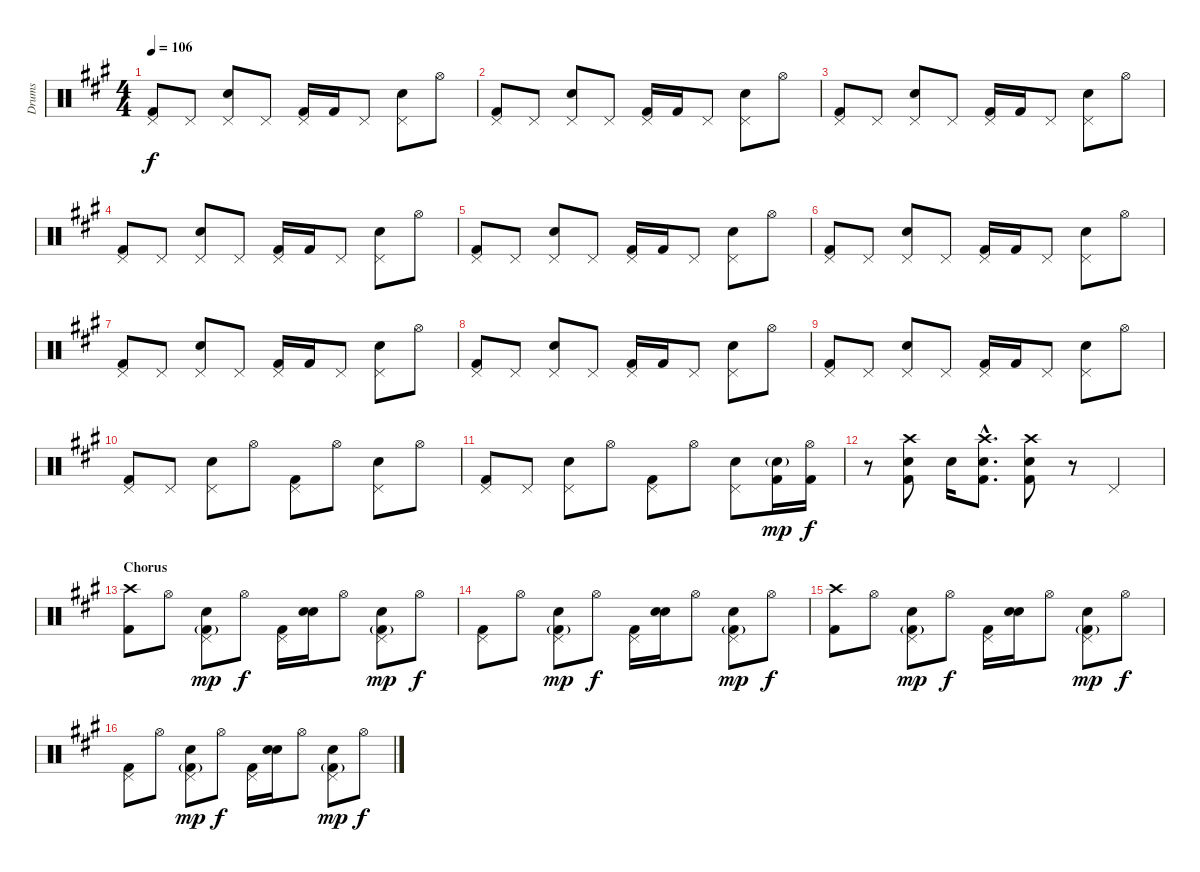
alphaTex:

\track ("Drums" "Drums") {instrument percussion}
\staff {score}
\articulation defaults
\ts (4 4)
\tempo 106
\clef neutral
\ks a
("Pedal Hi-Hat (hit)" "Kick (hit) 2").8{dy f} "Pedal Hi-Hat (hit)".8 ("Pedal Hi-Hat (hit)" "Electric Snare (hit)").8 "Pedal Hi-Hat (hit)".8 ("Pedal Hi-Hat (hit)" "Kick (hit) 2").16 "Kick (hit) 2".16 "Pedal Hi-Hat (hit)".8 ("Pedal Hi-Hat (hit)" "Electric Snare (hit)").8 "Hi-Hat (open)".8 |
("Pedal Hi-Hat (hit)" "Kick (hit) 2").8 "Pedal Hi-Hat (hit)".8 ("Pedal Hi-Hat (hit)" "Electric Snare (hit)").8 "Pedal Hi-Hat (hit)".8 ("Pedal Hi-Hat (hit)" "Kick (hit) 2").16 "Kick (hit) 2".16 "Pedal Hi-Hat (hit)".8 ("Pedal Hi-Hat (hit)" "Electric Snare (hit)").8 "Hi-Hat (open)".8 |
("Pedal Hi-Hat (hit)" "Kick (hit) 2").8 "Pedal Hi-Hat (hit)".8 ("Pedal Hi-Hat (hit)" "Electric Snare (hit)").8 "Pedal Hi-Hat (hit)".8 ("Pedal Hi-Hat (hit)" "Kick (hit) 2").16 "Kick (hit) 2".16 "Pedal Hi-Hat (hit)".8 ("Pedal Hi-Hat (hit)" "Electric Snare (hit)").8 "Hi-Hat (open)".8 |
("Pedal Hi-Hat (hit)" "Kick (hit) 2").8 "Pedal Hi-Hat (hit)".8 ("Pedal Hi-Hat (hit)" "Electric Snare (hit)").8 "Pedal Hi-Hat (hit)".8 ("Pedal Hi-Hat (hit)" "Kick (hit) 2").16 "Kick (hit) 2".16 "Pedal Hi-Hat (hit)".8 ("Pedal Hi-Hat (hit)" "Electric Snare (hit)").8 "Hi-Hat (open)".8 |
("Pedal Hi-Hat (hit)" "Kick (hit) 2").8 "Pedal Hi-Hat (hit)".8 ("Pedal Hi-Hat (hit)" "Electric Snare (hit)").8 "Pedal Hi-Hat (hit)".8 ("Pedal Hi-Hat (hit)" "Kick (hit) 2").16 "Kick (hit) 2".16 "Pedal Hi-Hat (hit)".8 ("Pedal Hi-Hat (hit)" "Electric Snare (hit)").8 "Hi-Hat (open)".8 |
("Pedal Hi-Hat (hit)" "Kick (hit) 2").8 "Pedal Hi-Hat (hit)".8 ("Pedal Hi-Hat (hit)" "Electric Snare (hit)").8 "Pedal Hi-Hat (hit)".8 ("Pedal Hi-Hat (hit)" "Kick (hit) 2").16 "Kick (hit) 2".16 "Pedal Hi-Hat (hit)".8 ("Pedal Hi-Hat (hit)" "Electric Snare (hit)").8 "Hi-Hat (open)".8 |
("Pedal Hi-Hat (hit)" "Kick (hit) 2").8 "Pedal Hi-Hat (hit)".8 ("Pedal Hi-Hat (hit)" "Electric Snare (hit)").8 "Pedal Hi-Hat (hit)".8 ("Pedal Hi-Hat (hit)" "Kick (hit) 2").16 "Kick (hit) 2".16 "Pedal Hi-Hat (hit)".8 ("Pedal Hi-Hat (hit)" "Electric Snare (hit)").8 "Hi-Hat (open)".8 |
("Pedal Hi-Hat (hit)" "Kick (hit) 2").8 "Pedal Hi-Hat (hit)".8 ("Pedal Hi-Hat (hit)" "Electric Snare (hit)").8 "Pedal Hi-Hat (hit)".8 ("Pedal Hi-Hat (hit)" "Kick (hit) 2").16 "Kick (hit) 2".16 "Pedal Hi-Hat (hit)".8 ("Pedal Hi-Hat (hit)" "Electric Snare (hit)").8 "Hi-Hat (open)".8 |
("Pedal Hi-Hat (hit)" "Kick (hit) 2").8 "Pedal Hi-Hat (hit)".8 ("Pedal Hi-Hat (hit)" "Electric Snare (hit)").8 "Pedal Hi-Hat (hit)".8 ("Pedal Hi-Hat (hit)" "Kick (hit) 2").16 "Kick (hit) 2".16 "Pedal Hi-Hat (hit)".8 ("Pedal Hi-Hat (hit)" "Electric Snare (hit)").8 "Hi-Hat (open)".8 |
("Pedal Hi-Hat (hit)" "Kick (hit) 2").8 "Pedal Hi-Hat (hit)".8 ("Pedal Hi-Hat (hit)" "Electric Snare (hit)").8 "Hi-Hat (open)".8 ("Pedal Hi-Hat (hit)" "Kick (hit) 2").8 "Hi-Hat (open)".8 ("Pedal Hi-Hat (hit)" "Electric Snare (hit)").8 "Hi-Hat (open)".8 |
("Pedal Hi-Hat (hit)" "Kick (hit) 2").8 "Pedal Hi-Hat (hit)".8 ("Pedal Hi-Hat (hit)" "Electric Snare (hit)").8 "Hi-Hat (open)".8 ("Pedal Hi-Hat (hit)" "Kick (hit) 2").8 "Hi-Hat (open)".8 ("Pedal Hi-Hat (hit)" "Electric Snare (hit)").8 ("Electric Snare (hit)"{g} "Kick (hit) 2").16{dy mp} ("Hi-Hat (open)" "Kick (hit) 2").16{dy f} |
r.8 ("Crash high (hit)" "Electric Snare (hit)" "Kick (hit) 2").8 "Snare (hit)"{x}.16 ("Crash high (hit)"{hac} "Electric Snare (hit)"{hac} "Kick (hit) 2"{hac}).8{d} ("Crash high (hit)" "Electric Snare (hit)" "Kick (hit) 2").8 r.8 "Pedal Hi-Hat (hit)".4 |
\section ("" "Chorus")
("Crash high (hit)" "Kick (hit) 2").8 "Hi-Hat (open)".8 ("Pedal Hi-Hat (hit)" "Electric Snare (hit)" "Kick (hit) 2"{g}).8{dy mp} "Hi-Hat (open)".8{dy f} ("Pedal Hi-Hat (hit)" "Kick (hit) 2").16 ("Snare (hit)"{x} "Electric Snare (hit)").16 "Hi-Hat (open)".8 ("Pedal Hi-Hat (hit)" "Electric Snare (hit)" "Kick (hit) 2"{g}).8{dy mp} "Hi-Hat (open)".8{dy f} |
("Pedal Hi-Hat (hit)" "Kick (hit) 2").8 "Hi-Hat (open)".8 ("Pedal Hi-Hat (hit)" "Electric Snare (hit)" "Kick (hit) 2"{g}).8{dy mp} "Hi-Hat (open)".8{dy f} ("Pedal Hi-Hat (hit)" "Kick (hit) 2").16 ("Snare (hit)"{x} "Electric Snare (hit)").16 "Hi-Hat (open)".8 ("Pedal Hi-Hat (hit)" "Electric Snare (hit)" "Kick (hit) 2"{g}).8{dy mp} "Hi-Hat (open)".8{dy f} |
("Crash high (hit)" "Kick (hit) 2").8 "Hi-Hat (open)".8 ("Pedal Hi-Hat (hit)" "Electric Snare (hit)" "Kick (hit) 2"{g}).8{dy mp} "Hi-Hat (open)".8{dy f} ("Pedal Hi-Hat (hit)" "Kick (hit) 2").16 ("Snare (hit)"{x} "Electric Snare (hit)").16 "Hi-Hat (open)".8 ("Pedal Hi-Hat (hit)" "Electric Snare (hit)" "Kick (hit) 2"{g}).8{dy mp} "Hi-Hat (open)".8{dy f} |
("Pedal Hi-Hat (hit)" "Kick (hit) 2").8 "Hi-Hat (open)".8 ("Pedal Hi-Hat (hit)" "Electric Snare (hit)" "Kick (hit) 2"{g}).8{dy mp} "Hi-Hat (open)".8{dy f} ("Pedal Hi-Hat (hit)" "Kick (hit) 2").16 ("Snare (hit)"{x} "Electric Snare (hit)").16 "Hi-Hat (open)".8 ("Pedal Hi-Hat (hit)" "Electric Snare (hit)" "Kick (hit) 2"{g}).8{dy mp} "Hi-Hat (open)".8{dy f}
